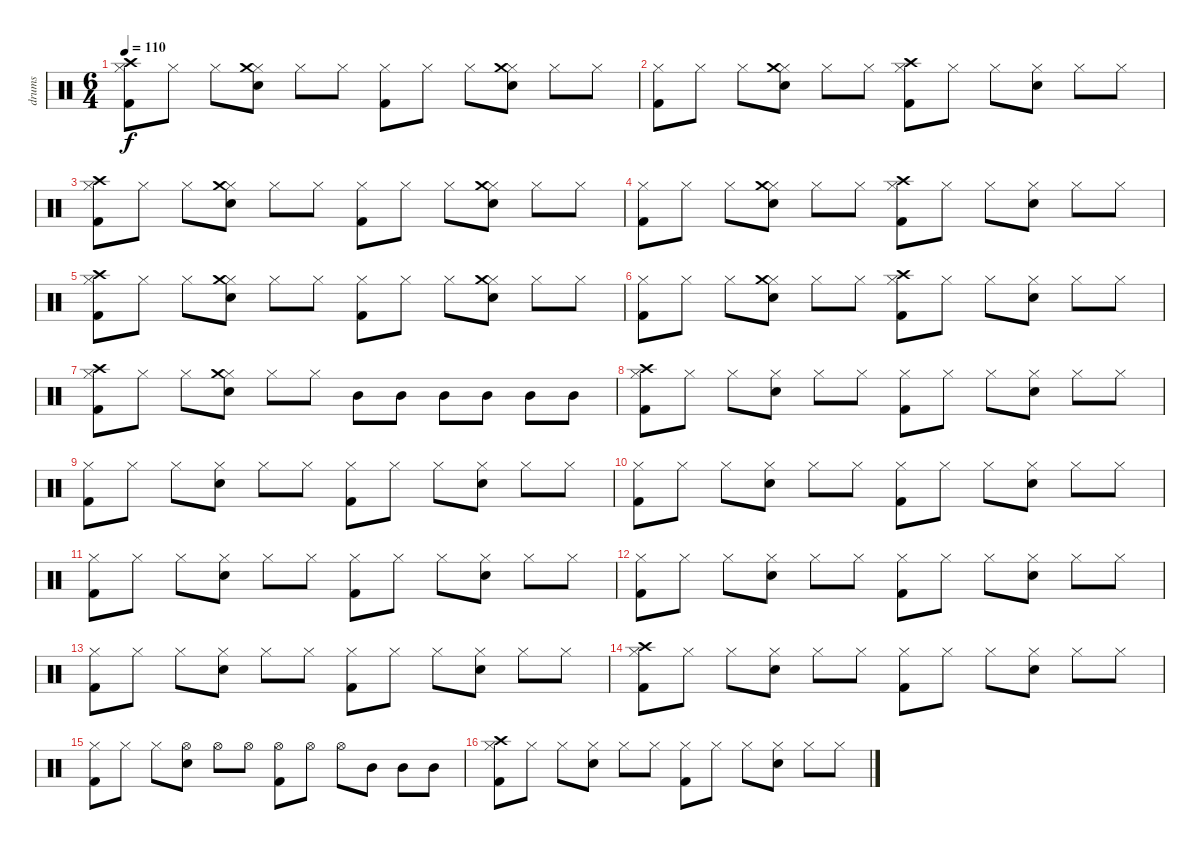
\track ("drums" "drums") {instrument percussion}
\staff {score}
\articulation defaults
\ts (6 4)
\tempo 110
\clef neutral
\ks c
("Hi-Hat (closed)" "Kick (hit) 2" "Crash high (hit)").8{dy f} "Hi-Hat (closed)".8 "Hi-Hat (closed)".8 ("Hi-Hat (closed)" "Snare (hit) 2" "Crash medium (hit)").8 "Hi-Hat (closed)".8 "Hi-Hat (closed)".8 ("Hi-Hat (closed)" "Kick (hit) 2").8 "Hi-Hat (closed)".8 "Hi-Hat (closed)".8 ("Hi-Hat (closed)" "Snare (hit) 2" "Crash medium (hit)").8 "Hi-Hat (closed)".8 "Hi-Hat (closed)".8 |
("Hi-Hat (closed)" "Kick (hit) 2").8 "Hi-Hat (closed)".8 "Hi-Hat (closed)".8 ("Hi-Hat (closed)" "Snare (hit) 2" "Crash medium (hit)").8 "Hi-Hat (closed)".8 "Hi-Hat (closed)".8 ("Hi-Hat (closed)" "Kick (hit) 2" "Crash high (hit)").8 "Hi-Hat (closed)".8 "Hi-Hat (closed)".8 ("Hi-Hat (closed)" "Snare (hit) 2").8 "Hi-Hat (closed)".8 "Hi-Hat (closed)".8 |
("Hi-Hat (closed)" "Kick (hit) 2" "Crash high (hit)").8 "Hi-Hat (closed)".8 "Hi-Hat (closed)".8 ("Hi-Hat (closed)" "Snare (hit) 2" "Crash medium (hit)").8 "Hi-Hat (closed)".8 "Hi-Hat (closed)".8 ("Hi-Hat (closed)" "Kick (hit) 2").8 "Hi-Hat (closed)".8 "Hi-Hat (closed)".8 ("Hi-Hat (closed)" "Snare (hit) 2" "Crash medium (hit)").8 "Hi-Hat (closed)".8 "Hi-Hat (closed)".8 |
("Hi-Hat (closed)" "Kick (hit) 2").8 "Hi-Hat (closed)".8 "Hi-Hat (closed)".8 ("Hi-Hat (closed)" "Snare (hit) 2" "Crash medium (hit)").8 "Hi-Hat (closed)".8 "Hi-Hat (closed)".8 ("Hi-Hat (closed)" "Kick (hit) 2" "Crash high (hit)").8 "Hi-Hat (closed)".8 "Hi-Hat (closed)".8 ("Hi-Hat (closed)" "Snare (hit) 2").8 "Hi-Hat (closed)".8 "Hi-Hat (closed)".8 |
("Hi-Hat (closed)" "Kick (hit) 2" "Crash high (hit)").8 "Hi-Hat (closed)".8 "Hi-Hat (closed)".8 ("Hi-Hat (closed)" "Snare (hit) 2" "Crash medium (hit)").8 "Hi-Hat (closed)".8 "Hi-Hat (closed)".8 ("Hi-Hat (closed)" "Kick (hit) 2").8 "Hi-Hat (closed)".8 "Hi-Hat (closed)".8 ("Hi-Hat (closed)" "Snare (hit) 2" "Crash medium (hit)").8 "Hi-Hat (closed)".8 "Hi-Hat (closed)".8 |
("Hi-Hat (closed)" "Kick (hit) 2").8 "Hi-Hat (closed)".8 "Hi-Hat (closed)".8 ("Hi-Hat (closed)" "Snare (hit) 2" "Crash medium (hit)").8 "Hi-Hat (closed)".8 "Hi-Hat (closed)".8 ("Hi-Hat (closed)" "Kick (hit) 2" "Crash high (hit)").8 "Hi-Hat (closed)".8 "Hi-Hat (closed)".8 ("Hi-Hat (closed)" "Snare (hit) 2").8 "Hi-Hat (closed)".8 "Hi-Hat (closed)".8 |
("Hi-Hat (closed)" "Kick (hit) 2" "Crash high (hit)").8 "Hi-Hat (closed)".8 "Hi-Hat (closed)".8 ("Hi-Hat (closed)" "Snare (hit) 2" "Crash medium (hit)").8 "Hi-Hat (closed)".8 "Hi-Hat (closed)".8 "Mid Tom (hit)".8 "Mid Tom (hit)".8 "Mid Tom (hit)".8 "Mid Tom (hit)".8 "Mid Tom (hit)".8 "Mid Tom (hit)".8 |
("Hi-Hat (closed)" "Kick (hit) 2" "Crash high (hit)").8 "Hi-Hat (closed)".8 "Hi-Hat (closed)".8 ("Hi-Hat (closed)" "Snare (hit) 2").8 "Hi-Hat (closed)".8 "Hi-Hat (closed)".8 ("Hi-Hat (closed)" "Kick (hit) 2").8 "Hi-Hat (closed)".8 "Hi-Hat (closed)".8 ("Hi-Hat (closed)" "Snare (hit) 2").8 "Hi-Hat (closed)".8 "Hi-Hat (closed)".8 |
("Hi-Hat (closed)" "Kick (hit) 2").8 "Hi-Hat (closed)".8 "Hi-Hat (closed)".8 ("Hi-Hat (closed)" "Snare (hit) 2").8 "Hi-Hat (closed)".8 "Hi-Hat (closed)".8 ("Hi-Hat (closed)" "Kick (hit) 2").8 "Hi-Hat (closed)".8 "Hi-Hat (closed)".8 ("Hi-Hat (closed)" "Snare (hit) 2").8 "Hi-Hat (closed)".8 "Hi-Hat (closed)".8 |
("Hi-Hat (closed)" "Kick (hit) 2").8 "Hi-Hat (closed)".8 "Hi-Hat (closed)".8 ("Hi-Hat (closed)" "Snare (hit) 2").8 "Hi-Hat (closed)".8 "Hi-Hat (closed)".8 ("Hi-Hat (closed)" "Kick (hit) 2").8 "Hi-Hat (closed)".8 "Hi-Hat (closed)".8 ("Hi-Hat (closed)" "Snare (hit) 2").8 "Hi-Hat (closed)".8 "Hi-Hat (closed)".8 |
("Hi-Hat (closed)" "Kick (hit) 2").8 "Hi-Hat (closed)".8 "Hi-Hat (closed)".8 ("Hi-Hat (closed)" "Snare (hit) 2").8 "Hi-Hat (closed)".8 "Hi-Hat (closed)".8 ("Hi-Hat (closed)" "Kick (hit) 2").8 "Hi-Hat (closed)".8 "Hi-Hat (closed)".8 ("Hi-Hat (closed)" "Snare (hit) 2").8 "Hi-Hat (closed)".8 "Hi-Hat (closed)".8 |
("Hi-Hat (closed)" "Kick (hit) 2").8 "Hi-Hat (closed)".8 "Hi-Hat (closed)".8 ("Hi-Hat (closed)" "Snare (hit) 2").8 "Hi-Hat (closed)".8 "Hi-Hat (closed)".8 ("Hi-Hat (closed)" "Kick (hit) 2").8 "Hi-Hat (closed)".8 "Hi-Hat (closed)".8 ("Hi-Hat (closed)" "Snare (hit) 2").8 "Hi-Hat (closed)".8 "Hi-Hat (closed)".8 |
("Hi-Hat (closed)" "Kick (hit) 2").8 "Hi-Hat (closed)".8 "Hi-Hat (closed)".8 ("Hi-Hat (closed)" "Snare (hit) 2").8 "Hi-Hat (closed)".8 "Hi-Hat (closed)".8 ("Hi-Hat (closed)" "Kick (hit) 2").8 "Hi-Hat (closed)".8 "Hi-Hat (closed)".8 ("Hi-Hat (closed)" "Snare (hit) 2").8 "Hi-Hat (closed)".8 "Hi-Hat (closed)".8 |
("Hi-Hat (closed)" "Kick (hit) 2" "Crash high (hit)").8 "Hi-Hat (closed)".8 "Hi-Hat (closed)".8 ("Hi-Hat (closed)" "Snare (hit) 2").8 "Hi-Hat (closed)".8 "Hi-Hat (closed)".8 ("Hi-Hat (closed)" "Kick (hit) 2").8 "Hi-Hat (closed)".8 "Hi-Hat (closed)".8 ("Hi-Hat (closed)" "Snare (hit) 2").8 "Hi-Hat (closed)".8 "Hi-Hat (closed)".8 |
("Hi-Hat (closed)" "Kick (hit) 2").8 "Hi-Hat (closed)".8 "Hi-Hat (closed)".8 ("Hi-Hat (open)" "Snare (hit) 2").8 "Hi-Hat (open)".8 "Hi-Hat (open)".8 ("Hi-Hat (open)" "Kick (hit) 2").8 "Hi-Hat (open)".8 "Hi-Hat (open)".8 "Mid Tom (hit)".8 "Mid Tom (hit)".8 "Mid Tom (hit)".8 |
("Hi-Hat (closed)" "Kick (hit) 2" "Crash high (hit)").8 "Hi-Hat (closed)".8 "Hi-Hat (closed)".8 ("Hi-Hat (closed)" "Snare (hit) 2").8 "Hi-Hat (closed)".8 "Hi-Hat (closed)".8 ("Hi-Hat (closed)" "Kick (hit) 2").8 "Hi-Hat (closed)".8 "Hi-Hat (closed)".8 ("Hi-Hat (closed)" "Snare (hit) 2").8 "Hi-Hat (closed)".8 "Hi-Hat (closed)".8
